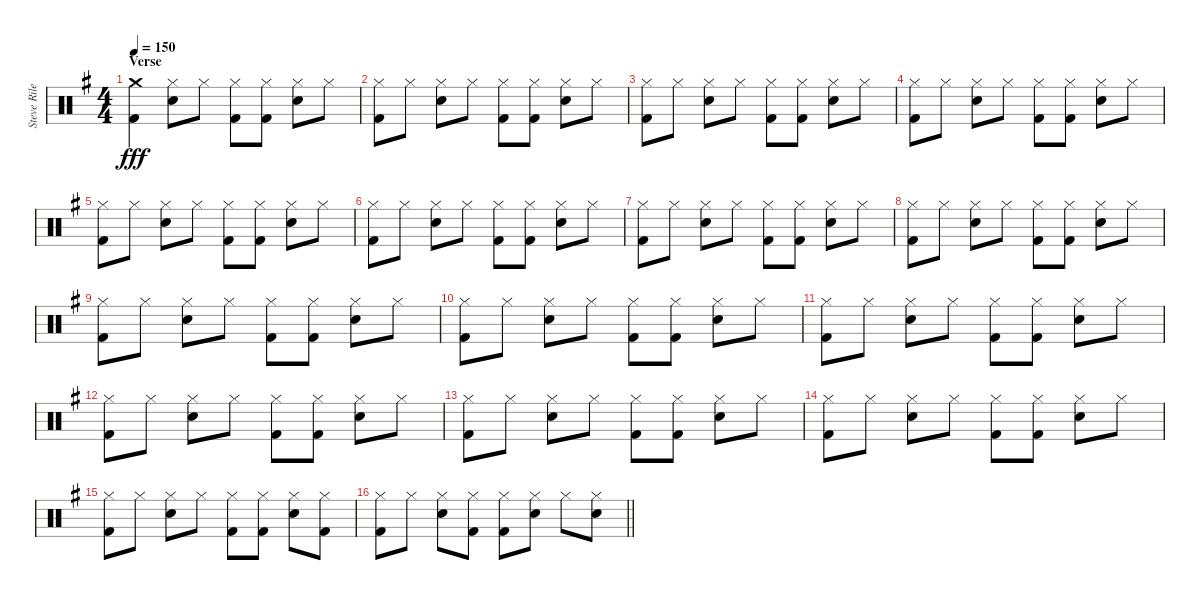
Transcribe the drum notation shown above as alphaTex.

\track ("Steve Riley - Drums" "Steve Rile") {instrument percussion}
\staff {score}
\articulation defaults
\ts (4 4)
\section ("" "Verse")
\tempo 150
\clef neutral
\ks g
("Crash medium (hit)" "Kick (hit) 2").4{dy fff} ("Hi-Hat (closed)" "Electric Snare (hit)").8 "Hi-Hat (closed)".8 ("Hi-Hat (closed)" "Kick (hit) 2").8 ("Hi-Hat (closed)" "Kick (hit) 2").8 ("Hi-Hat (closed)" "Electric Snare (hit)").8 "Hi-Hat (closed)".8 |
("Hi-Hat (closed)" "Kick (hit) 2").8 "Hi-Hat (closed)".8 ("Hi-Hat (closed)" "Electric Snare (hit)").8 "Hi-Hat (closed)".8 ("Hi-Hat (closed)" "Kick (hit) 2").8 ("Hi-Hat (closed)" "Kick (hit) 2").8 ("Hi-Hat (closed)" "Electric Snare (hit)").8 "Hi-Hat (closed)".8 |
("Hi-Hat (closed)" "Kick (hit) 2").8 "Hi-Hat (closed)".8 ("Hi-Hat (closed)" "Electric Snare (hit)").8 "Hi-Hat (closed)".8 ("Hi-Hat (closed)" "Kick (hit) 2").8 ("Hi-Hat (closed)" "Kick (hit) 2").8 ("Hi-Hat (closed)" "Electric Snare (hit)").8 "Hi-Hat (closed)".8 |
("Hi-Hat (closed)" "Kick (hit) 2").8 "Hi-Hat (closed)".8 ("Hi-Hat (closed)" "Electric Snare (hit)").8 "Hi-Hat (closed)".8 ("Hi-Hat (closed)" "Kick (hit) 2").8 ("Hi-Hat (closed)" "Kick (hit) 2").8 ("Hi-Hat (closed)" "Electric Snare (hit)").8 "Hi-Hat (closed)".8 |
("Hi-Hat (closed)" "Kick (hit) 2").8 "Hi-Hat (closed)".8 ("Hi-Hat (closed)" "Electric Snare (hit)").8 "Hi-Hat (closed)".8 ("Hi-Hat (closed)" "Kick (hit) 2").8 ("Hi-Hat (closed)" "Kick (hit) 2").8 ("Hi-Hat (closed)" "Electric Snare (hit)").8 "Hi-Hat (closed)".8 |
("Hi-Hat (closed)" "Kick (hit) 2").8 "Hi-Hat (closed)".8 ("Hi-Hat (closed)" "Electric Snare (hit)").8 "Hi-Hat (closed)".8 ("Hi-Hat (closed)" "Kick (hit) 2").8 ("Hi-Hat (closed)" "Kick (hit) 2").8 ("Hi-Hat (closed)" "Electric Snare (hit)").8 "Hi-Hat (closed)".8 |
("Hi-Hat (closed)" "Kick (hit) 2").8 "Hi-Hat (closed)".8 ("Hi-Hat (closed)" "Electric Snare (hit)").8 "Hi-Hat (closed)".8 ("Hi-Hat (closed)" "Kick (hit) 2").8 ("Hi-Hat (closed)" "Kick (hit) 2").8 ("Hi-Hat (closed)" "Electric Snare (hit)").8 "Hi-Hat (closed)".8 |
("Hi-Hat (closed)" "Kick (hit) 2").8 "Hi-Hat (closed)".8 ("Hi-Hat (closed)" "Electric Snare (hit)").8 "Hi-Hat (closed)".8 ("Hi-Hat (closed)" "Kick (hit) 2").8 ("Hi-Hat (closed)" "Kick (hit) 2").8 ("Hi-Hat (closed)" "Electric Snare (hit)").8 "Hi-Hat (closed)".8 |
("Hi-Hat (closed)" "Kick (hit) 2").8 "Hi-Hat (closed)".8 ("Hi-Hat (closed)" "Electric Snare (hit)").8 "Hi-Hat (closed)".8 ("Hi-Hat (closed)" "Kick (hit) 2").8 ("Hi-Hat (closed)" "Kick (hit) 2").8 ("Hi-Hat (closed)" "Electric Snare (hit)").8 "Hi-Hat (closed)".8 |
("Hi-Hat (closed)" "Kick (hit) 2").8 "Hi-Hat (closed)".8 ("Hi-Hat (closed)" "Electric Snare (hit)").8 "Hi-Hat (closed)".8 ("Hi-Hat (closed)" "Kick (hit) 2").8 ("Hi-Hat (closed)" "Kick (hit) 2").8 ("Hi-Hat (closed)" "Electric Snare (hit)").8 "Hi-Hat (closed)".8 |
("Hi-Hat (closed)" "Kick (hit) 2").8 "Hi-Hat (closed)".8 ("Hi-Hat (closed)" "Electric Snare (hit)").8 "Hi-Hat (closed)".8 ("Hi-Hat (closed)" "Kick (hit) 2").8 ("Hi-Hat (closed)" "Kick (hit) 2").8 ("Hi-Hat (closed)" "Electric Snare (hit)").8 "Hi-Hat (closed)".8 |
("Hi-Hat (closed)" "Kick (hit) 2").8 "Hi-Hat (closed)".8 ("Hi-Hat (closed)" "Electric Snare (hit)").8 "Hi-Hat (closed)".8 ("Hi-Hat (closed)" "Kick (hit) 2").8 ("Hi-Hat (closed)" "Kick (hit) 2").8 ("Hi-Hat (closed)" "Electric Snare (hit)").8 "Hi-Hat (closed)".8 |
("Hi-Hat (closed)" "Kick (hit) 2").8 "Hi-Hat (closed)".8 ("Hi-Hat (closed)" "Electric Snare (hit)").8 "Hi-Hat (closed)".8 ("Hi-Hat (closed)" "Kick (hit) 2").8 ("Hi-Hat (closed)" "Kick (hit) 2").8 ("Hi-Hat (closed)" "Electric Snare (hit)").8 "Hi-Hat (closed)".8 |
("Hi-Hat (closed)" "Kick (hit) 2").8 "Hi-Hat (closed)".8 ("Hi-Hat (closed)" "Electric Snare (hit)").8 "Hi-Hat (closed)".8 ("Hi-Hat (closed)" "Kick (hit) 2").8 ("Hi-Hat (closed)" "Kick (hit) 2").8 ("Hi-Hat (closed)" "Electric Snare (hit)").8 "Hi-Hat (closed)".8 |
("Hi-Hat (closed)" "Kick (hit) 2").8 "Hi-Hat (closed)".8 ("Hi-Hat (closed)" "Electric Snare (hit)").8 "Hi-Hat (closed)".8 ("Hi-Hat (closed)" "Kick (hit) 2").8 ("Hi-Hat (closed)" "Kick (hit) 2").8 ("Hi-Hat (closed)" "Electric Snare (hit)").8 ("Hi-Hat (closed)" "Kick (hit) 2").8 |
\barLineRight lightlight
("Hi-Hat (closed)" "Kick (hit) 2").8 "Hi-Hat (closed)".8 ("Hi-Hat (closed)" "Electric Snare (hit)").8 ("Hi-Hat (closed)" "Kick (hit) 2").8 ("Hi-Hat (closed)" "Kick (hit) 2").8 ("Hi-Hat (closed)" "Electric Snare (hit)").8 "Hi-Hat (closed)".8 ("Hi-Hat (closed)" "Electric Snare (hit)").8
